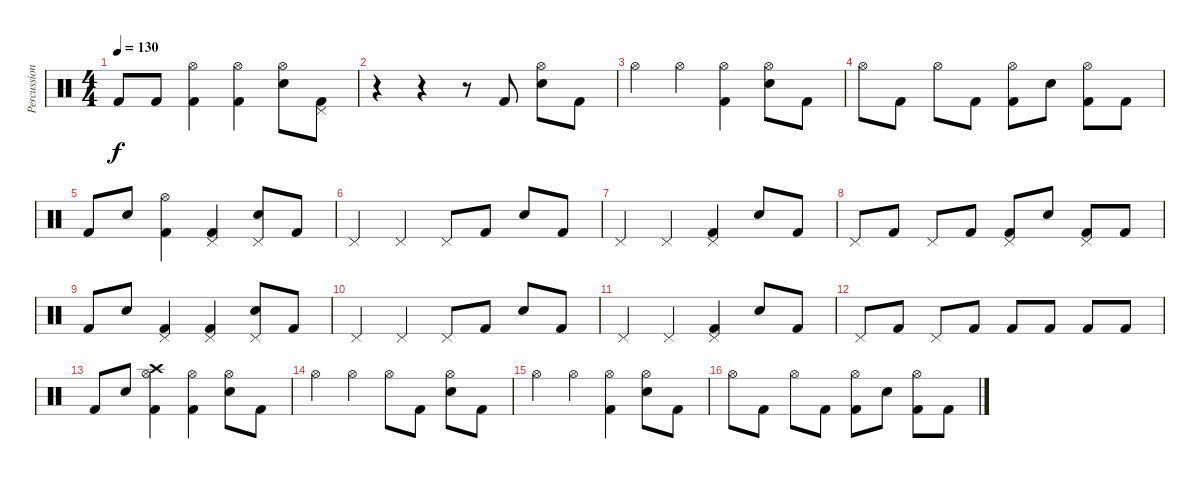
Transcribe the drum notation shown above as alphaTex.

\track ("Percussion" "Percussion") {instrument percussion}
\staff {score}
\articulation defaults
\ts (4 4)
\tempo 130
\clef neutral
\ks c "Kick (hit) 2".8{dy f} "Kick (hit) 2".8
("Hi-Hat (open)" "Kick (hit) 2").4 ("Hi-Hat (open)" "Kick (hit) 2").4 ("Hi-Hat (open)" "Snare (hit) 2").8 ("Pedal Hi-Hat (hit)" "Kick (hit) 2").8 |
r.4 r.4 r.8 "Kick (hit) 2".8 ("Hi-Hat (open)" "Snare (hit) 2").8 "Kick (hit) 2".8 |
"Hi-Hat (open)".4 "Hi-Hat (open)".4 ("Hi-Hat (open)" "Kick (hit) 2").4 ("Hi-Hat (open)" "Snare (hit) 2").8 "Kick (hit) 2".8 |
"Hi-Hat (open)".8 "Kick (hit) 2".8 "Hi-Hat (open)".8 "Kick (hit) 2".8 ("Hi-Hat (open)" "Kick (hit) 2").8 "Snare (hit) 2".8 ("Hi-Hat (open)" "Kick (hit) 2").8 "Kick (hit) 2".8 |
"Kick (hit) 2".8 "Snare (hit) 2".8 ("Hi-Hat (open)" "Kick (hit) 2").4 ("Pedal Hi-Hat (hit)" "Kick (hit) 2").4 ("Pedal Hi-Hat (hit)" "Snare (hit) 2").8 "Kick (hit) 2".8 |
"Pedal Hi-Hat (hit)".4 "Pedal Hi-Hat (hit)".4 "Pedal Hi-Hat (hit)".8 "Kick (hit) 2".8 "Snare (hit) 2".8 "Kick (hit) 2".8 |
"Pedal Hi-Hat (hit)".4 "Pedal Hi-Hat (hit)".4 ("Pedal Hi-Hat (hit)" "Kick (hit) 2").4 "Snare (hit) 2".8 "Kick (hit) 2".8 |
"Pedal Hi-Hat (hit)".8 "Kick (hit) 2".8 "Pedal Hi-Hat (hit)".8 "Kick (hit) 2".8 ("Pedal Hi-Hat (hit)" "Kick (hit) 2").8 "Snare (hit) 2".8 ("Pedal Hi-Hat (hit)" "Kick (hit) 2").8 "Kick (hit) 2".8 |
"Kick (hit) 2".8 "Snare (hit) 2".8 ("Pedal Hi-Hat (hit)" "Kick (hit) 2").4 ("Pedal Hi-Hat (hit)" "Kick (hit) 2").4 ("Pedal Hi-Hat (hit)" "Snare (hit) 2").8 "Kick (hit) 2".8 |
"Pedal Hi-Hat (hit)".4 "Pedal Hi-Hat (hit)".4 "Pedal Hi-Hat (hit)".8 "Kick (hit) 2".8 "Snare (hit) 2".8 "Kick (hit) 2".8 |
"Pedal Hi-Hat (hit)".4 "Pedal Hi-Hat (hit)".4 ("Pedal Hi-Hat (hit)" "Kick (hit) 2").4 "Snare (hit) 2".8 "Kick (hit) 2".8 |
"Pedal Hi-Hat (hit)".8 "Kick (hit) 2".8 "Pedal Hi-Hat (hit)".8 "Kick (hit) 2".8 "Kick (hit) 2".8 "Kick (hit) 2".8 "Kick (hit) 2".8 "Kick (hit) 2".8 |
"Kick (hit) 2".8 "Snare (hit) 2".8 ("Crash high (hit)" "Hi-Hat (open)" "Kick (hit) 2").4 ("Hi-Hat (open)" "Kick (hit) 2").4 ("Hi-Hat (open)" "Snare (hit) 2").8 "Kick (hit) 2".8 |
"Hi-Hat (open)".4 "Hi-Hat (open)".4 "Hi-Hat (open)".8 "Kick (hit) 2".8 ("Hi-Hat (open)" "Snare (hit) 2").8 "Kick (hit) 2".8 |
"Hi-Hat (open)".4 "Hi-Hat (open)".4 ("Hi-Hat (open)" "Kick (hit) 2").4 ("Hi-Hat (open)" "Snare (hit) 2").8 "Kick (hit) 2".8 |
"Hi-Hat (open)".8 "Kick (hit) 2".8 "Hi-Hat (open)".8 "Kick (hit) 2".8 ("Hi-Hat (open)" "Kick (hit) 2").8 "Snare (hit) 2".8 ("Hi-Hat (open)" "Kick (hit) 2").8 "Kick (hit) 2".8
